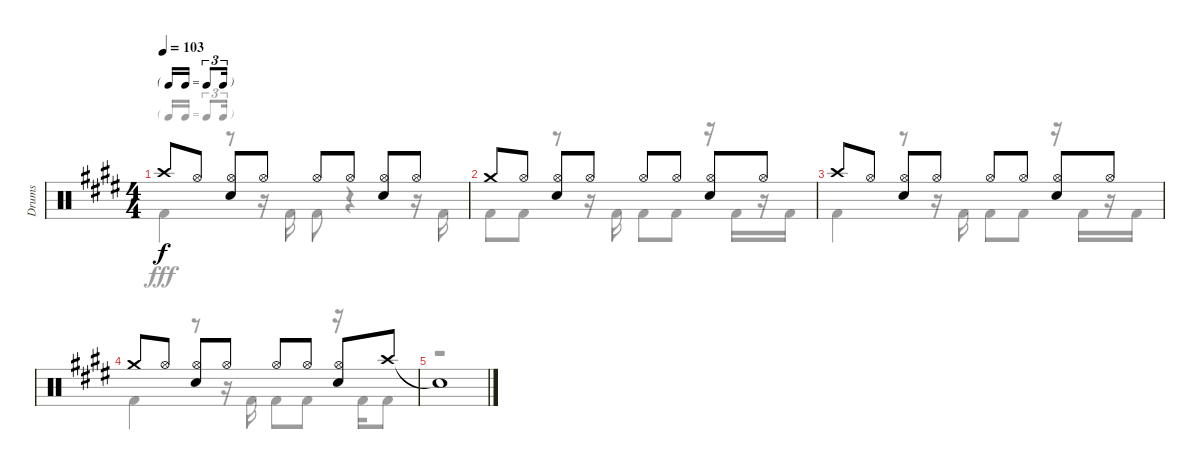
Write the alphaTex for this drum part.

\track ("Drums" "Drums") {instrument percussion}
\staff {score}
\articulation defaults
\voice
\ts (4 4)
\tf triplet16th
\tempo 103
\clef neutral
\ks e "Crash high (hit)".8{dy f} "Hi-Hat (open)".8
("Hi-Hat (open)" "Snare (hit) 2").8 "Hi-Hat (open)".8 "Hi-Hat (open)".8 "Hi-Hat (open)".8 ("Hi-Hat (open)" "Snare (hit) 2").8 "Hi-Hat (open)".8 |
"Crash medium (hit)".8 "Hi-Hat (open)".8 ("Hi-Hat (open)" "Snare (hit) 2").8 "Hi-Hat (open)".8 "Hi-Hat (open)".8 "Hi-Hat (open)".8 ("Hi-Hat (open)" "Snare (hit) 2").8 "Hi-Hat (open)".8 |
"Crash high (hit)".8 "Hi-Hat (open)".8 ("Hi-Hat (open)" "Snare (hit) 2").8 "Hi-Hat (open)".8 "Hi-Hat (open)".8 "Hi-Hat (open)".8 ("Hi-Hat (open)" "Snare (hit) 2").8 "Hi-Hat (open)".8 |
"Crash medium (hit)".8 "Hi-Hat (open)".8 ("Hi-Hat (open)" "Snare (hit) 2").8 "Hi-Hat (open)".8 "Hi-Hat (open)".8 "Hi-Hat (open)".8 ("Hi-Hat (open)" "Snare (hit) 2").8 "Crash high (hit)".8 |
"Snare (hit)"{t}.1
\voice
\clef neutral
\ottava regular
\simile none
\ks e "Kick (hit) 2".4{dy fff}
r.8 r.16 "Kick (hit) 2".16 "Kick (hit) 2".8 r.4 r.16 "Kick (hit) 2".16 |
"Kick (hit) 2".8 "Kick (hit) 2".8 r.8 r.16 "Kick (hit) 2".16 "Kick (hit) 2".8 "Kick (hit) 2".8 r.16 "Kick (hit) 2".16 r.16 "Kick (hit) 2".16 |
"Kick (hit) 2".4 r.8 r.16 "Kick (hit) 2".16 "Kick (hit) 2".8 "Kick (hit) 2".8 r.16 "Kick (hit) 2".16 r.16 "Kick (hit) 2".16 |
"Kick (hit) 2".4 r.8 r.16 "Kick (hit) 2".16 "Kick (hit) 2".8 "Kick (hit) 2".8 r.16 "Kick (hit) 2".16 "Kick (hit) 2".8 |
r.1
